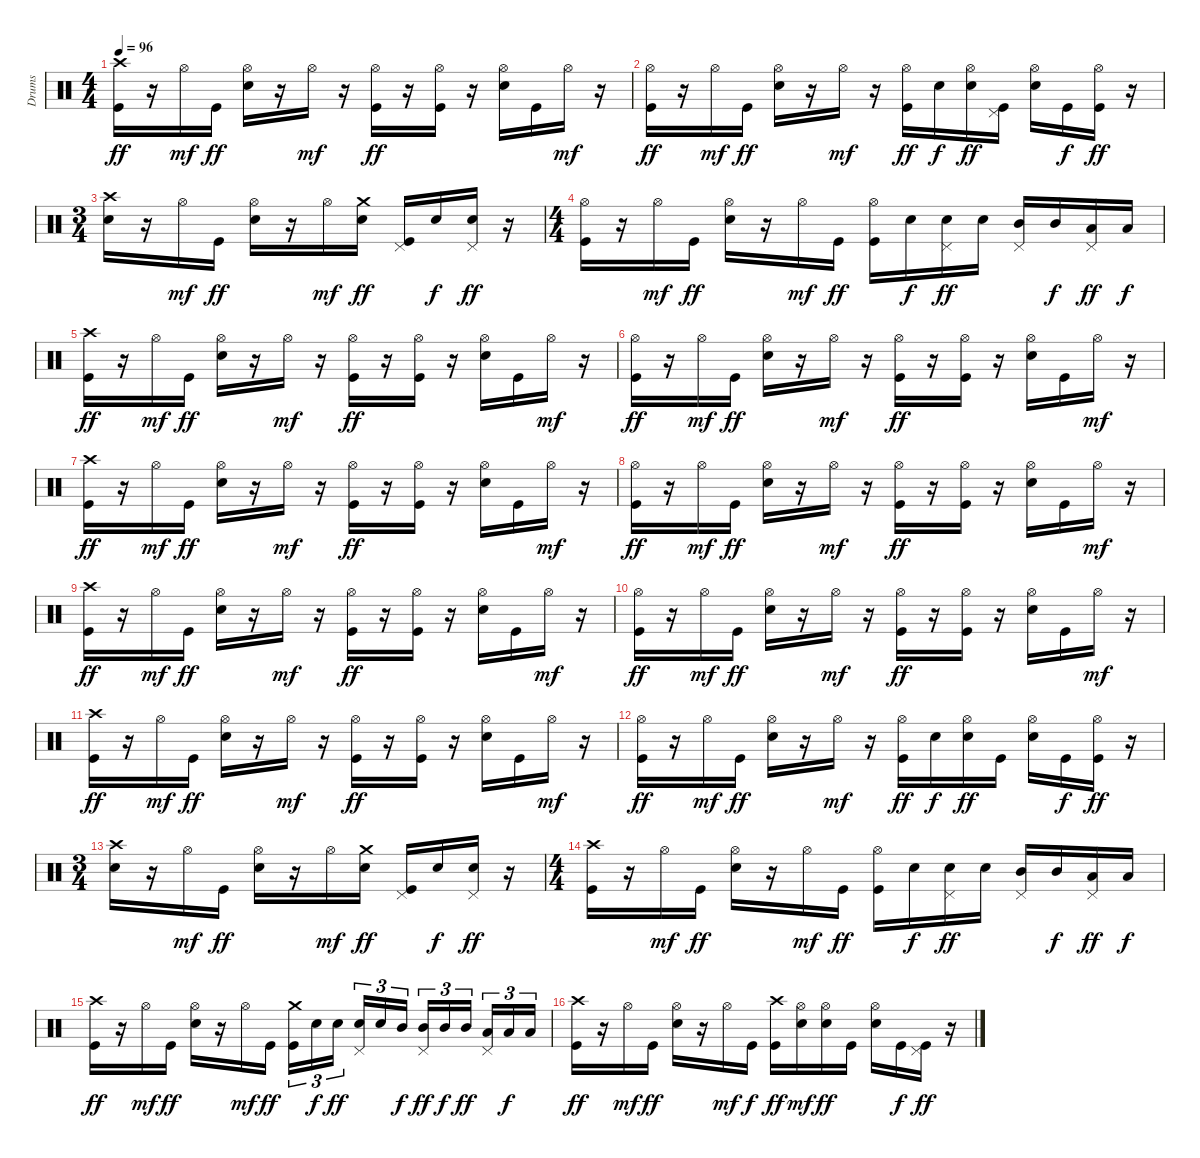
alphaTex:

\track ("Drums" "Drums") {instrument percussion}
\staff {score}
\articulation defaults
\ts (4 4)
\tempo 96
\clef neutral
\ks c
("Crash high (hit)" "Kick (hit)").16{dy ff} r.16 "Hi-Hat (open)".16{dy mf} "Kick (hit)".16{dy ff} ("Hi-Hat (open)" "Snare (hit) 2").16 r.16 "Hi-Hat (open)".16{dy mf} r.16 ("Hi-Hat (open)" "Kick (hit)").16{dy ff} r.16 ("Hi-Hat (open)" "Kick (hit)").16 r.16 ("Hi-Hat (open)" "Snare (hit) 2").16 "Kick (hit)".16 "Hi-Hat (open)".16{dy mf} r.16 |
("Hi-Hat (open)" "Kick (hit)").16{dy ff} r.16 "Hi-Hat (open)".16{dy mf} "Kick (hit)".16{dy ff} ("Hi-Hat (open)" "Snare (hit) 2").16 r.16 "Hi-Hat (open)".16{dy mf} r.16 ("Hi-Hat (open)" "Kick (hit)").16{dy ff} "Snare (hit) 2".16{dy f} ("Hi-Hat (open)" "Snare (hit) 2").16{dy ff} ("Pedal Hi-Hat (hit)" "Kick (hit)").16 ("Hi-Hat (open)" "Snare (hit) 2").16 "Kick (hit)".16{dy f} ("Hi-Hat (open)" "Kick (hit)").16{dy ff} r.16 |
\ts (3 4)
("Crash high (hit)" "Snare (hit) 2").16 r.16 "Hi-Hat (open)".16{dy mf} "Kick (hit)".16{dy ff} ("Hi-Hat (open)" "Snare (hit) 2").16 r.16 "Hi-Hat (open)".16{dy mf} ("Crash medium (hit)" "Snare (hit) 2").16{dy ff} ("Pedal Hi-Hat (hit)" "Kick (hit)").16 "Snare (hit) 2".16{dy f} ("Pedal Hi-Hat (hit)" "Snare (hit) 2").16{dy ff} r.16 |
\ts (4 4)
("Hi-Hat (open)" "Kick (hit)").16 r.16 "Hi-Hat (open)".16{dy mf} "Kick (hit)".16{dy ff} ("Hi-Hat (open)" "Snare (hit) 2").16 r.16 "Hi-Hat (open)".16{dy mf} "Kick (hit)".16{dy ff} ("Hi-Hat (open)" "Kick (hit)").16 "Snare (hit) 2".16{dy f} ("Pedal Hi-Hat (hit)" "Snare (hit) 2").16{dy ff} "Snare (hit) 2".16 ("Pedal Hi-Hat (hit)" "Mid Tom (hit)").16 "Mid Tom (hit)".16{dy f} ("Pedal Hi-Hat (hit)" "Low Tom (hit)").16{dy ff} "Low Tom (hit)".16{dy f} |
("Crash high (hit)" "Kick (hit)").16{dy ff} r.16 "Hi-Hat (open)".16{dy mf} "Kick (hit)".16{dy ff} ("Hi-Hat (open)" "Snare (hit) 2").16 r.16 "Hi-Hat (open)".16{dy mf} r.16 ("Hi-Hat (open)" "Kick (hit)").16{dy ff} r.16 ("Hi-Hat (open)" "Kick (hit)").16 r.16 ("Hi-Hat (open)" "Snare (hit) 2").16 "Kick (hit)".16 "Hi-Hat (open)".16{dy mf} r.16 |
("Hi-Hat (open)" "Kick (hit)").16{dy ff} r.16 "Hi-Hat (open)".16{dy mf} "Kick (hit)".16{dy ff} ("Hi-Hat (open)" "Snare (hit) 2").16 r.16 "Hi-Hat (open)".16{dy mf} r.16 ("Hi-Hat (open)" "Kick (hit)").16{dy ff} r.16 ("Hi-Hat (open)" "Kick (hit)").16 r.16 ("Hi-Hat (open)" "Snare (hit) 2").16 "Kick (hit)".16 "Hi-Hat (open)".16{dy mf} r.16 |
("Crash high (hit)" "Kick (hit)").16{dy ff} r.16 "Hi-Hat (open)".16{dy mf} "Kick (hit)".16{dy ff} ("Hi-Hat (open)" "Snare (hit) 2").16 r.16 "Hi-Hat (open)".16{dy mf} r.16 ("Hi-Hat (open)" "Kick (hit)").16{dy ff} r.16 ("Hi-Hat (open)" "Kick (hit)").16 r.16 ("Hi-Hat (open)" "Snare (hit) 2").16 "Kick (hit)".16 "Hi-Hat (open)".16{dy mf} r.16 |
("Hi-Hat (open)" "Kick (hit)").16{dy ff} r.16 "Hi-Hat (open)".16{dy mf} "Kick (hit)".16{dy ff} ("Hi-Hat (open)" "Snare (hit) 2").16 r.16 "Hi-Hat (open)".16{dy mf} r.16 ("Hi-Hat (open)" "Kick (hit)").16{dy ff} r.16 ("Hi-Hat (open)" "Kick (hit)").16 r.16 ("Hi-Hat (open)" "Snare (hit) 2").16 "Kick (hit)".16 "Hi-Hat (open)".16{dy mf} r.16 |
("Crash high (hit)" "Kick (hit)").16{dy ff} r.16 "Hi-Hat (open)".16{dy mf} "Kick (hit)".16{dy ff} ("Hi-Hat (open)" "Snare (hit) 2").16 r.16 "Hi-Hat (open)".16{dy mf} r.16 ("Hi-Hat (open)" "Kick (hit)").16{dy ff} r.16 ("Hi-Hat (open)" "Kick (hit)").16 r.16 ("Hi-Hat (open)" "Snare (hit) 2").16 "Kick (hit)".16 "Hi-Hat (open)".16{dy mf} r.16 |
("Hi-Hat (open)" "Kick (hit)").16{dy ff} r.16 "Hi-Hat (open)".16{dy mf} "Kick (hit)".16{dy ff} ("Hi-Hat (open)" "Snare (hit) 2").16 r.16 "Hi-Hat (open)".16{dy mf} r.16 ("Hi-Hat (open)" "Kick (hit)").16{dy ff} r.16 ("Hi-Hat (open)" "Kick (hit)").16 r.16 ("Hi-Hat (open)" "Snare (hit) 2").16 "Kick (hit)".16 "Hi-Hat (open)".16{dy mf} r.16 |
("Crash high (hit)" "Kick (hit)").16{dy ff} r.16 "Hi-Hat (open)".16{dy mf} "Kick (hit)".16{dy ff} ("Hi-Hat (open)" "Snare (hit) 2").16 r.16 "Hi-Hat (open)".16{dy mf} r.16 ("Hi-Hat (open)" "Kick (hit)").16{dy ff} r.16 ("Hi-Hat (open)" "Kick (hit)").16 r.16 ("Hi-Hat (open)" "Snare (hit) 2").16 "Kick (hit)".16 "Hi-Hat (open)".16{dy mf} r.16 |
("Hi-Hat (open)" "Kick (hit)").16{dy ff} r.16 "Hi-Hat (open)".16{dy mf} "Kick (hit)".16{dy ff} ("Hi-Hat (open)" "Snare (hit) 2").16 r.16 "Hi-Hat (open)".16{dy mf} r.16 ("Hi-Hat (open)" "Kick (hit)").16{dy ff} "Snare (hit) 2".16{dy f} ("Hi-Hat (open)" "Snare (hit) 2").16{dy ff} "Kick (hit)".16 ("Hi-Hat (open)" "Snare (hit) 2").16 "Kick (hit)".16{dy f} ("Hi-Hat (open)" "Kick (hit)").16{dy ff} r.16 |
\ts (3 4)
("Crash high (hit)" "Snare (hit) 2").16 r.16 "Hi-Hat (open)".16{dy mf} "Kick (hit)".16{dy ff} ("Hi-Hat (open)" "Snare (hit) 2").16 r.16 "Hi-Hat (open)".16{dy mf} ("Crash medium (hit)" "Snare (hit) 2").16{dy ff} ("Pedal Hi-Hat (hit)" "Kick (hit)").16 "Snare (hit) 2".16{dy f} ("Pedal Hi-Hat (hit)" "Snare (hit) 2").16{dy ff} r.16 |
\ts (4 4)
("Crash high (hit)" "Kick (hit)").16 r.16 "Hi-Hat (open)".16{dy mf} "Kick (hit)".16{dy ff} ("Hi-Hat (open)" "Snare (hit) 2").16 r.16 "Hi-Hat (open)".16{dy mf} "Kick (hit)".16{dy ff} ("Hi-Hat (open)" "Kick (hit)").16 "Snare (hit) 2".16{dy f} ("Pedal Hi-Hat (hit)" "Snare (hit) 2").16{dy ff} "Snare (hit) 2".16 ("Pedal Hi-Hat (hit)" "Mid Tom (hit)").16 "Mid Tom (hit)".16{dy f} ("Pedal Hi-Hat (hit)" "Low Tom (hit)").16{dy ff} "Low Tom (hit)".16{dy f} |
("Crash high (hit)" "Kick (hit)").16{dy ff} r.16 "Hi-Hat (open)".16{dy mf} "Kick (hit)".16{dy ff} ("Hi-Hat (open)" "Snare (hit) 2").16 r.16 "Hi-Hat (open)".16{dy mf} "Kick (hit)".16{dy ff} ("Crash medium (hit)" "Kick (hit)").16{tu (3 2)} "Snare (hit) 2".16{tu (3 2) dy f} "Snare (hit) 2".16{tu (3 2) dy ff} ("Pedal Hi-Hat (hit)" "Snare (hit) 2").16{tu (3 2)} "Snare (hit) 2".16{tu (3 2)} "Mid Tom (hit)".16{tu (3 2) dy f} ("Pedal Hi-Hat (hit)" "Mid Tom (hit)").16{tu (3 2) dy ff} "Mid Tom (hit)".16{tu (3 2) dy f} "Mid Tom (hit)".16{tu (3 2) dy ff} ("Pedal Hi-Hat (hit)" "Low Tom (hit)").16{tu (3 2)} "Low Tom (hit)".16{tu (3 2) dy f} "Low Tom (hit)".16{tu (3 2)} |
("Crash high (hit)" "Kick (hit)").16{dy ff} r.16 "Hi-Hat (open)".16{dy mf} "Kick (hit)".16{dy ff} ("Hi-Hat (open)" "Snare (hit) 2").16 r.16 "Hi-Hat (open)".16{dy mf} "Kick (hit)".16{dy f} ("Crash high (hit)" "Kick (hit)").16{dy ff} ("Hi-Hat (open)" "Snare (hit) 2").16{dy mf} ("Hi-Hat (open)" "Snare (hit) 2").16{dy ff} "Kick (hit)".16 ("Hi-Hat (open)" "Snare (hit) 2").16 "Kick (hit)".16{dy f} ("Pedal Hi-Hat (hit)" "Kick (hit)").16{dy ff} r.16
